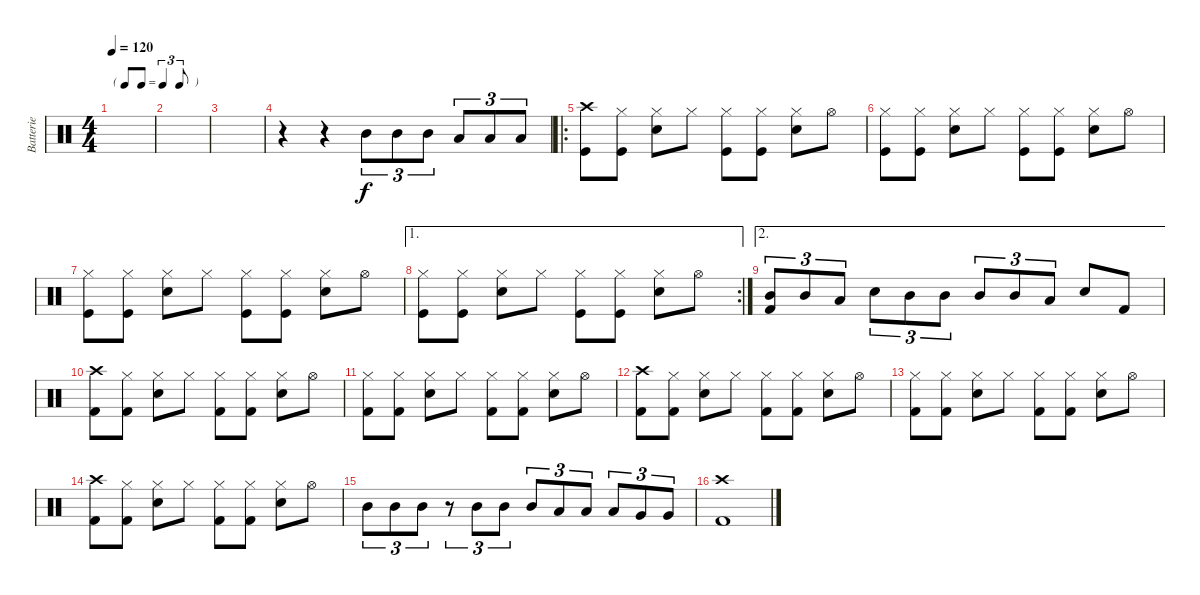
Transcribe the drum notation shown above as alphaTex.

\track ("Batterie" "Batterie") {instrument percussion}
\staff {score}
\articulation defaults
\ts (4 4)
\tf triplet8th
\tempo 120
\clef neutral
\ks c
|
|
|
r.4 r.4 "Mid Tom (hit)".8{tu (3 2)} "Mid Tom (hit)".8{tu (3 2)} "Mid Tom (hit)".8{tu (3 2)} "Low Tom (hit)".8{tu (3 2)} "Low Tom (hit)".8{tu (3 2)} "Low Tom (hit)".8{tu (3 2)} |
\ro
("Crash high (hit)" "Kick (hit)").8 ("Hi-Hat (closed)" "Kick (hit)").8 ("Hi-Hat (closed)" "Snare (hit) 2").8 "Hi-Hat (closed)".8 ("Hi-Hat (closed)" "Kick (hit)").8 ("Hi-Hat (closed)" "Kick (hit)").8 ("Hi-Hat (closed)" "Snare (hit) 2").8 "Hi-Hat (open)".8 |
("Hi-Hat (closed)" "Kick (hit)").8 ("Hi-Hat (closed)" "Kick (hit)").8 ("Hi-Hat (closed)" "Snare (hit) 2").8 "Hi-Hat (closed)".8 ("Hi-Hat (closed)" "Kick (hit)").8 ("Hi-Hat (closed)" "Kick (hit)").8 ("Hi-Hat (closed)" "Snare (hit) 2").8 "Hi-Hat (open)".8 |
("Hi-Hat (closed)" "Kick (hit)").8 ("Hi-Hat (closed)" "Kick (hit)").8 ("Hi-Hat (closed)" "Snare (hit) 2").8 "Hi-Hat (closed)".8 ("Hi-Hat (closed)" "Kick (hit)").8 ("Hi-Hat (closed)" "Kick (hit)").8 ("Hi-Hat (closed)" "Snare (hit) 2").8 "Hi-Hat (open)".8 |
\ae 1
\rc 2
("Hi-Hat (closed)" "Kick (hit)").8 ("Hi-Hat (closed)" "Kick (hit)").8 ("Hi-Hat (closed)" "Snare (hit) 2").8 "Hi-Hat (closed)".8 ("Hi-Hat (closed)" "Kick (hit)").8 ("Hi-Hat (closed)" "Kick (hit)").8 ("Hi-Hat (closed)" "Snare (hit) 2").8 "Hi-Hat (open)".8 |
\ae 2
("Mid Tom (hit)" "Kick (hit) 2").8{tu (3 2)} "Mid Tom (hit)".8{tu (3 2)} "Low Tom (hit)".8{tu (3 2)} "Snare (hit) 2".8{tu (3 2)} "Mid Tom (hit)".8{tu (3 2)} "Mid Tom (hit)".8{tu (3 2)} "Mid Tom (hit)".8{tu (3 2)} "Mid Tom (hit)".8{tu (3 2)} "Low Tom (hit)".8{tu (3 2)} "Snare (hit) 2".8 "Kick (hit) 2".8 |
("Crash high (hit)" "Kick (hit) 2").8 ("Hi-Hat (closed)" "Kick (hit) 2").8 ("Hi-Hat (closed)" "Snare (hit) 2").8 "Hi-Hat (closed)".8 ("Hi-Hat (closed)" "Kick (hit) 2").8 ("Hi-Hat (closed)" "Kick (hit) 2").8 ("Hi-Hat (closed)" "Snare (hit) 2").8 "Hi-Hat (open)".8 |
("Hi-Hat (closed)" "Kick (hit) 2").8 ("Hi-Hat (closed)" "Kick (hit) 2").8 ("Hi-Hat (closed)" "Snare (hit) 2").8 "Hi-Hat (closed)".8 ("Hi-Hat (closed)" "Kick (hit) 2").8 ("Hi-Hat (closed)" "Kick (hit) 2").8 ("Hi-Hat (closed)" "Snare (hit) 2").8 "Hi-Hat (open)".8 |
("Crash high (hit)" "Kick (hit) 2").8 ("Hi-Hat (closed)" "Kick (hit) 2").8 ("Hi-Hat (closed)" "Snare (hit) 2").8 "Hi-Hat (closed)".8 ("Hi-Hat (closed)" "Kick (hit) 2").8 ("Hi-Hat (closed)" "Kick (hit) 2").8 ("Hi-Hat (closed)" "Snare (hit) 2").8 "Hi-Hat (open)".8 |
("Hi-Hat (closed)" "Kick (hit) 2").8 ("Hi-Hat (closed)" "Kick (hit) 2").8 ("Hi-Hat (closed)" "Snare (hit) 2").8 "Hi-Hat (closed)".8 ("Hi-Hat (closed)" "Kick (hit) 2").8 ("Hi-Hat (closed)" "Kick (hit) 2").8 ("Hi-Hat (closed)" "Snare (hit) 2").8 "Hi-Hat (open)".8 |
("Crash high (hit)" "Kick (hit) 2").8 ("Hi-Hat (closed)" "Kick (hit) 2").8 ("Hi-Hat (closed)" "Snare (hit) 2").8 "Hi-Hat (closed)".8 ("Hi-Hat (closed)" "Kick (hit) 2").8 ("Hi-Hat (closed)" "Kick (hit) 2").8 ("Hi-Hat (closed)" "Snare (hit) 2").8 "Hi-Hat (open)".8 |
"Mid Tom (hit)".8{tu (3 2)} "Mid Tom (hit)".8{tu (3 2)} "Mid Tom (hit)".8{tu (3 2)} r.8{tu (3 2)} "Mid Tom (hit)".8{tu (3 2)} "Mid Tom (hit)".8{tu (3 2)} "Mid Tom (hit)".8{tu (3 2)} "Low Tom (hit)".8{tu (3 2)} "Low Tom (hit)".8{tu (3 2)} "Low Tom (hit)".8{tu (3 2)} "Very Low Tom (hit)".8{tu (3 2)} "Very Low Tom (hit)".8{tu (3 2)} |
("Crash high (hit)" "Kick (hit) 2").1
